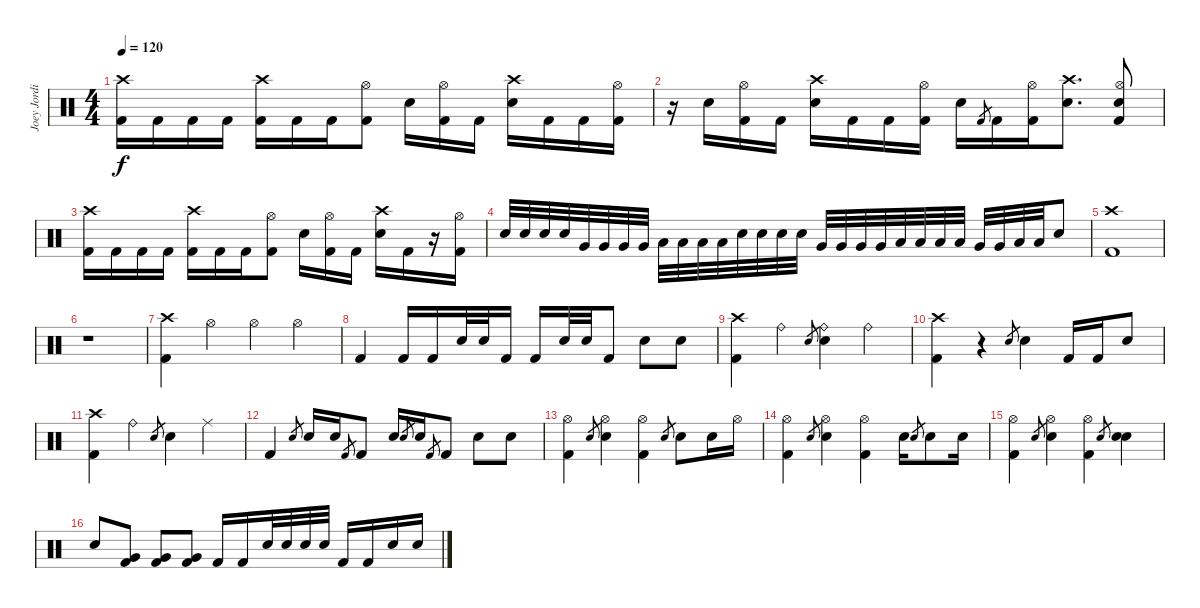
\track ("Joey Jordison   #1" "Joey Jordi") {instrument percussion}
\staff {score}
\articulation defaults
\ts (4 4)
\tempo 120
\clef neutral
\ks c
("Crash high (hit)" "Kick (hit) 2").16{dy f} "Kick (hit) 2".16 "Kick (hit) 2".16 "Kick (hit) 2".16 ("Crash high (hit)" "Kick (hit) 2").16 "Kick (hit) 2".16 "Kick (hit) 2".16 ("Hi-Hat (open)" "Kick (hit) 2").8 "Electric Snare (hit)".16 ("Hi-Hat (open)" "Kick (hit) 2").16 "Kick (hit) 2".16 ("Crash high (hit)" "Electric Snare (hit)").16 "Kick (hit) 2".16 "Kick (hit) 2".16 ("Hi-Hat (open)" "Kick (hit) 2").16 |
r.16 "Electric Snare (hit)".16 ("Hi-Hat (open)" "Kick (hit) 2").16 "Kick (hit) 2".16 ("Crash high (hit)" "Electric Snare (hit)").16 "Kick (hit) 2".16 "Kick (hit) 2".16 ("Hi-Hat (open)" "Kick (hit) 2").16 "Electric Snare (hit)".16 "Kick (hit) 2".8{gr} "Kick (hit) 2".16 ("Hi-Hat (open)" "Kick (hit) 2").16 ("Crash high (hit)" "Electric Snare (hit)").8{d} ("Hi-Hat (open)" "Electric Snare (hit)" "Kick (hit) 2").8 |
("Crash high (hit)" "Kick (hit) 2").16 "Kick (hit) 2".16 "Kick (hit) 2".16 "Kick (hit) 2".16 ("Crash high (hit)" "Kick (hit) 2").16 "Kick (hit) 2".16 "Kick (hit) 2".16 ("Hi-Hat (open)" "Kick (hit) 2").8 "Electric Snare (hit)".16 ("Hi-Hat (open)" "Kick (hit) 2").16 "Kick (hit) 2".16 ("Crash high (hit)" "Electric Snare (hit)").16 "Kick (hit) 2".16 r.16 ("Hi-Hat (open)" "Kick (hit) 2").16 |
"Electric Snare (hit)".32 "Electric Snare (hit)".32 "Electric Snare (hit)".32 "Electric Snare (hit)".32 "Very Low Tom (hit)".32 "Very Low Tom (hit)".32 "Very Low Tom (hit)".32 "Very Low Tom (hit)".32 "Low Floor Tom (hit)".32 "Low Floor Tom (hit)".32 "Low Floor Tom (hit)".32 "Low Floor Tom (hit)".32 "Electric Snare (hit)".32 "Electric Snare (hit)".32 "Electric Snare (hit)".32 "Electric Snare (hit)".32 "Very Low Tom (hit)".32 "Very Low Tom (hit)".32 "Very Low Tom (hit)".32 "Very Low Tom (hit)".32 "Low Floor Tom (hit)".32 "Low Floor Tom (hit)".32 "Low Floor Tom (hit)".32 "Low Floor Tom (hit)".32 "Very Low Tom (hit)".32 "Very Low Tom (hit)".32 "Low Floor Tom (hit)".32 "Low Floor Tom (hit)".32 "Electric Snare (hit)".8 |
("Crash high (hit)" "Kick (hit) 2").1 |
r.1 |
("Crash high (hit)" "Kick (hit) 2").4 "Hi-Hat (open)".4 "Hi-Hat (open)".4 "Hi-Hat (open)".4 |
"Kick (hit) 2".4 "Kick (hit) 2".16 "Kick (hit) 2".16 "Electric Snare (hit)".32 "Electric Snare (hit)".32 "Kick (hit) 2".16 "Kick (hit) 2".16 "Electric Snare (hit)".32 "Electric Snare (hit)".32 "Kick (hit) 2".8 "Electric Snare (hit)".8 "Electric Snare (hit)".8 |
("Crash high (hit)" "Kick (hit) 2").4 "Ride (bell)".4 "Electric Snare (hit)".8{gr} ("Ride (bell)" "Electric Snare (hit)").4 "Ride (bell)".4 |
("Crash high (hit)" "Kick (hit) 2").4 r.4 "Electric Snare (hit)".8{gr} "Electric Snare (hit)".4 "Kick (hit) 2".16 "Kick (hit) 2".16 "Electric Snare (hit)".8 |
("Crash high (hit)" "Kick (hit) 2").4 "Ride (bell)".4 "Electric Snare (hit)".8{gr} "Electric Snare (hit)".4 "Ride (middle)".4 |
"Kick (hit) 2".4 "Electric Snare (hit)".8{gr} "Electric Snare (hit)".16 "Electric Snare (hit)".16 "Kick (hit) 2".8{gr} "Kick (hit) 2".8 "Electric Snare (hit)".16 "Electric Snare (hit)".8{gr} "Electric Snare (hit)".16 "Kick (hit) 2".8{gr} "Kick (hit) 2".8 "Electric Snare (hit)".8 "Electric Snare (hit)".8 |
("Hi-Hat (open)" "Kick (hit) 2").4 "Electric Snare (hit)".8{gr} ("Hi-Hat (open)" "Electric Snare (hit)").4 ("Hi-Hat (open)" "Kick (hit) 2").4 "Electric Snare (hit)".8{gr} "Electric Snare (hit)".8 "Electric Snare (hit)".16 "Hi-Hat (open)".16 |
("Hi-Hat (open)" "Kick (hit) 2").4 "Electric Snare (hit)".8{gr} ("Hi-Hat (open)" "Electric Snare (hit)").4 ("Hi-Hat (open)" "Kick (hit) 2").4 "Electric Snare (hit)".16 "Electric Snare (hit)".8{gr} "Electric Snare (hit)".8 "Electric Snare (hit)".16 |
("Hi-Hat (open)" "Kick (hit) 2").4 "Electric Snare (hit)".8{gr} ("Hi-Hat (open)" "Electric Snare (hit)").4 ("Hi-Hat (open)" "Kick (hit) 2").4 "Electric Snare (hit)".8{gr} ("Electric Snare (hit)" "Electric Snare (hit)").4 |
"Electric Snare (hit)".8 ("Very Low Tom (hit)" "Kick (hit) 2").8 ("Very Low Tom (hit)" "Kick (hit) 2").8 ("Very Low Tom (hit)" "Kick (hit) 2").8 "Kick (hit) 2".16 "Kick (hit) 2".16 "Electric Snare (hit)".32 "Electric Snare (hit)".32 "Electric Snare (hit)".32 "Electric Snare (hit)".32 "Kick (hit) 2".16 "Kick (hit) 2".16 "Electric Snare (hit)".16 "Electric Snare (hit)".16
